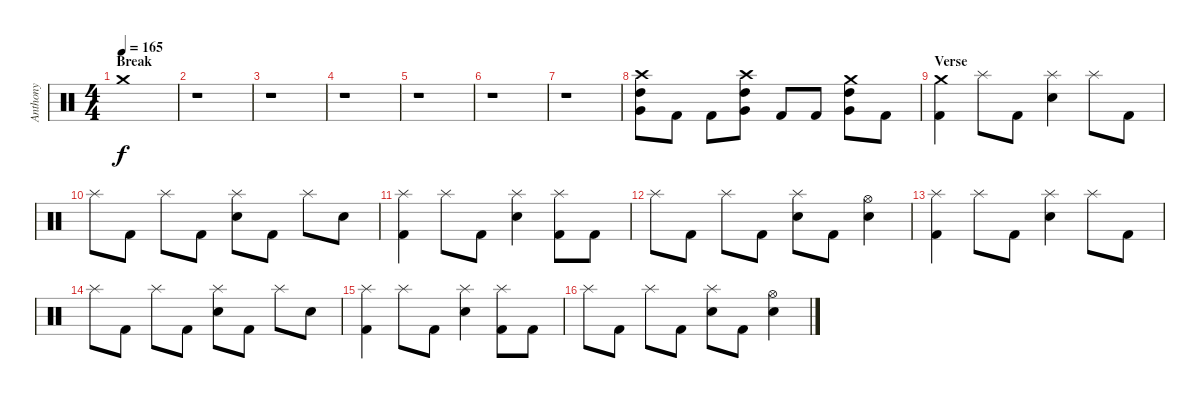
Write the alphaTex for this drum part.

\track ("Anthony" "Anthony") {instrument percussion}
\staff {score}
\articulation defaults
\ts (4 4)
\section ("" "Break")
\tempo 165
\clef neutral
\ks c "Crash medium (hit)".1{dy f}
|
r.1 |
r.1 |
r.1 |
r.1 |
r.1 |
r.1 |
("High Tom (hit)" "Very Low Tom (hit)" "Crash high (hit)").8 "Kick (hit) 2".8 "Kick (hit) 2".8 ("High Tom (hit)" "Very Low Tom (hit)" "Crash high (hit)").8 "Kick (hit) 2".8 "Kick (hit) 2".8 ("High Tom (hit)" "Very Low Tom (hit)" "Crash medium (hit)").8 "Kick (hit) 2".8 |
\section ("" "Verse")
("Crash medium (hit)" "Kick (hit) 2").4 "Splash (hit)".8 "Kick (hit) 2".8 ("Splash (hit)" "Electric Snare (hit)").4 "Splash (hit)".8 "Kick (hit) 2".8 |
"Splash (hit)".8 "Kick (hit) 2".8 "Splash (hit)".8 "Kick (hit) 2".8 ("Splash (hit)" "Electric Snare (hit)").8 "Kick (hit) 2".8 "Splash (hit)".8 "Electric Snare (hit)".8 |
("Splash (hit)" "Kick (hit) 2").4 "Splash (hit)".8 "Kick (hit) 2".8 ("Splash (hit)" "Electric Snare (hit)").4 ("Splash (hit)" "Kick (hit) 2").8 "Kick (hit) 2".8 |
"Splash (hit)".8 "Kick (hit) 2".8 "Splash (hit)".8 "Kick (hit) 2".8 ("Splash (hit)" "Electric Snare (hit)").8 "Kick (hit) 2".8 ("Hi-Hat (open)" "Electric Snare (hit)").4 |
("Splash (hit)" "Kick (hit) 2").4 "Splash (hit)".8 "Kick (hit) 2".8 ("Splash (hit)" "Electric Snare (hit)").4 "Splash (hit)".8 "Kick (hit) 2".8 |
"Splash (hit)".8 "Kick (hit) 2".8 "Splash (hit)".8 "Kick (hit) 2".8 ("Splash (hit)" "Electric Snare (hit)").8 "Kick (hit) 2".8 "Splash (hit)".8 "Electric Snare (hit)".8 |
("Splash (hit)" "Kick (hit) 2").4 "Splash (hit)".8 "Kick (hit) 2".8 ("Splash (hit)" "Electric Snare (hit)").4 ("Splash (hit)" "Kick (hit) 2").8 "Kick (hit) 2".8 |
"Splash (hit)".8 "Kick (hit) 2".8 "Splash (hit)".8 "Kick (hit) 2".8 ("Splash (hit)" "Electric Snare (hit)").8 "Kick (hit) 2".8 ("Hi-Hat (open)" "Electric Snare (hit)").4
